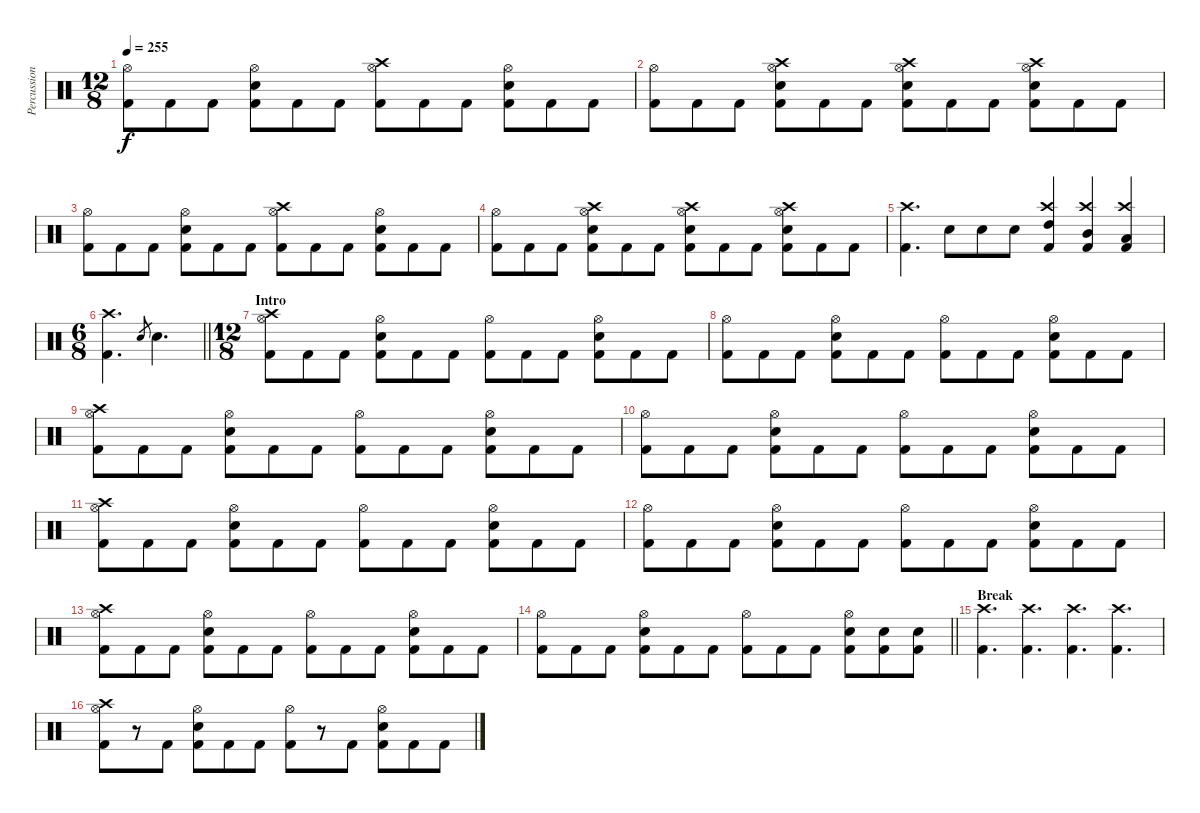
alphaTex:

\track ("Percussion" "Percussion") {instrument percussion}
\staff {score}
\articulation defaults
\ts (12 8)
\tempo 255
\clef neutral
\ks c
("Hi-Hat (open)" "Kick (hit) 2").8{dy f} "Kick (hit) 2".8 "Kick (hit) 2".8 ("Hi-Hat (open)" "Snare (hit) 2" "Kick (hit) 2").8 "Kick (hit) 2".8 "Kick (hit) 2".8 ("Crash high (hit)" "Hi-Hat (open)" "Kick (hit) 2").8 "Kick (hit) 2".8 "Kick (hit) 2".8 ("Hi-Hat (open)" "Snare (hit) 2" "Kick (hit) 2").8 "Kick (hit) 2".8 "Kick (hit) 2".8 |
("Hi-Hat (open)" "Kick (hit) 2").8 "Kick (hit) 2".8 "Kick (hit) 2".8 ("Crash high (hit)" "Hi-Hat (open)" "Snare (hit) 2" "Kick (hit) 2").8 "Kick (hit) 2".8 "Kick (hit) 2".8 ("Crash high (hit)" "Hi-Hat (open)" "Snare (hit) 2" "Kick (hit) 2").8 "Kick (hit) 2".8 "Kick (hit) 2".8 ("Crash high (hit)" "Hi-Hat (open)" "Snare (hit) 2" "Kick (hit) 2").8 "Kick (hit) 2".8 "Kick (hit) 2".8 |
("Hi-Hat (open)" "Kick (hit) 2").8 "Kick (hit) 2".8 "Kick (hit) 2".8 ("Hi-Hat (open)" "Snare (hit) 2" "Kick (hit) 2").8 "Kick (hit) 2".8 "Kick (hit) 2".8 ("Crash high (hit)" "Hi-Hat (open)" "Kick (hit) 2").8 "Kick (hit) 2".8 "Kick (hit) 2".8 ("Hi-Hat (open)" "Snare (hit) 2" "Kick (hit) 2").8 "Kick (hit) 2".8 "Kick (hit) 2".8 |
("Hi-Hat (open)" "Kick (hit) 2").8 "Kick (hit) 2".8 "Kick (hit) 2".8 ("Crash high (hit)" "Hi-Hat (open)" "Snare (hit) 2" "Kick (hit) 2").8 "Kick (hit) 2".8 "Kick (hit) 2".8 ("Crash high (hit)" "Hi-Hat (open)" "Snare (hit) 2" "Kick (hit) 2").8 "Kick (hit) 2".8 "Kick (hit) 2".8 ("Crash high (hit)" "Hi-Hat (open)" "Snare (hit) 2" "Kick (hit) 2").8 "Kick (hit) 2".8 "Kick (hit) 2".8 |
("Crash high (hit)" "Kick (hit) 2").4{d} "Snare (hit) 2".8 "Snare (hit) 2".8 "Snare (hit) 2".8 ("Crash high (hit)" "High Tom (hit)" "Kick (hit) 2").4 ("Crash high (hit)" "Mid Tom (hit)" "Kick (hit) 2").4 ("Crash high (hit)" "Low Tom (hit)" "Kick (hit) 2").4 |
\ts (6 8)
\barLineRight lightlight
("Crash high (hit)" "Kick (hit) 2").4{d} "Snare (hit) 2".8{gr} "Snare (hit) 2".4{d} |
\ts (12 8)
\section ("" "Intro")
("Crash high (hit)" "Hi-Hat (open)" "Kick (hit) 2").8 "Kick (hit) 2".8 "Kick (hit) 2".8 ("Hi-Hat (open)" "Snare (hit) 2" "Kick (hit) 2").8 "Kick (hit) 2".8 "Kick (hit) 2".8 ("Hi-Hat (open)" "Kick (hit) 2").8 "Kick (hit) 2".8 "Kick (hit) 2".8 ("Hi-Hat (open)" "Snare (hit) 2" "Kick (hit) 2").8 "Kick (hit) 2".8 "Kick (hit) 2".8 |
("Hi-Hat (open)" "Kick (hit) 2").8 "Kick (hit) 2".8 "Kick (hit) 2".8 ("Hi-Hat (open)" "Snare (hit) 2" "Kick (hit) 2").8 "Kick (hit) 2".8 "Kick (hit) 2".8 ("Hi-Hat (open)" "Kick (hit) 2").8 "Kick (hit) 2".8 "Kick (hit) 2".8 ("Hi-Hat (open)" "Snare (hit) 2" "Kick (hit) 2").8 "Kick (hit) 2".8 "Kick (hit) 2".8 |
("Crash high (hit)" "Hi-Hat (open)" "Kick (hit) 2").8 "Kick (hit) 2".8 "Kick (hit) 2".8 ("Hi-Hat (open)" "Snare (hit) 2" "Kick (hit) 2").8 "Kick (hit) 2".8 "Kick (hit) 2".8 ("Hi-Hat (open)" "Kick (hit) 2").8 "Kick (hit) 2".8 "Kick (hit) 2".8 ("Hi-Hat (open)" "Snare (hit) 2" "Kick (hit) 2").8 "Kick (hit) 2".8 "Kick (hit) 2".8 |
("Hi-Hat (open)" "Kick (hit) 2").8 "Kick (hit) 2".8 "Kick (hit) 2".8 ("Hi-Hat (open)" "Snare (hit) 2" "Kick (hit) 2").8 "Kick (hit) 2".8 "Kick (hit) 2".8 ("Hi-Hat (open)" "Kick (hit) 2").8 "Kick (hit) 2".8 "Kick (hit) 2".8 ("Hi-Hat (open)" "Snare (hit) 2" "Kick (hit) 2").8 "Kick (hit) 2".8 "Kick (hit) 2".8 |
("Crash high (hit)" "Hi-Hat (open)" "Kick (hit) 2").8 "Kick (hit) 2".8 "Kick (hit) 2".8 ("Hi-Hat (open)" "Snare (hit) 2" "Kick (hit) 2").8 "Kick (hit) 2".8 "Kick (hit) 2".8 ("Hi-Hat (open)" "Kick (hit) 2").8 "Kick (hit) 2".8 "Kick (hit) 2".8 ("Hi-Hat (open)" "Snare (hit) 2" "Kick (hit) 2").8 "Kick (hit) 2".8 "Kick (hit) 2".8 |
("Hi-Hat (open)" "Kick (hit) 2").8 "Kick (hit) 2".8 "Kick (hit) 2".8 ("Hi-Hat (open)" "Snare (hit) 2" "Kick (hit) 2").8 "Kick (hit) 2".8 "Kick (hit) 2".8 ("Hi-Hat (open)" "Kick (hit) 2").8 "Kick (hit) 2".8 "Kick (hit) 2".8 ("Hi-Hat (open)" "Snare (hit) 2" "Kick (hit) 2").8 "Kick (hit) 2".8 "Kick (hit) 2".8 |
("Crash high (hit)" "Hi-Hat (open)" "Kick (hit) 2").8 "Kick (hit) 2".8 "Kick (hit) 2".8 ("Hi-Hat (open)" "Snare (hit) 2" "Kick (hit) 2").8 "Kick (hit) 2".8 "Kick (hit) 2".8 ("Hi-Hat (open)" "Kick (hit) 2").8 "Kick (hit) 2".8 "Kick (hit) 2".8 ("Hi-Hat (open)" "Snare (hit) 2" "Kick (hit) 2").8 "Kick (hit) 2".8 "Kick (hit) 2".8 |
\barLineRight lightlight
("Hi-Hat (open)" "Kick (hit) 2").8 "Kick (hit) 2".8 "Kick (hit) 2".8 ("Hi-Hat (open)" "Snare (hit) 2" "Kick (hit) 2").8 "Kick (hit) 2".8 "Kick (hit) 2".8 ("Hi-Hat (open)" "Kick (hit) 2").8 "Kick (hit) 2".8 "Kick (hit) 2".8 ("Hi-Hat (open)" "Snare (hit) 2" "Kick (hit) 2").8 ("Snare (hit) 2" "Kick (hit) 2").8 ("Snare (hit) 2" "Kick (hit) 2").8 |
\section ("" "Break")
("Crash high (hit)" "Kick (hit) 2").4{d} ("Crash high (hit)" "Kick (hit) 2").4{d} ("Crash high (hit)" "Kick (hit) 2").4{d} ("Crash high (hit)" "Kick (hit) 2").4{d} |
("Crash high (hit)" "Hi-Hat (open)" "Kick (hit) 2").8 r.8 "Kick (hit) 2".8 ("Hi-Hat (open)" "Snare (hit) 2" "Kick (hit) 2").8 "Kick (hit) 2".8 "Kick (hit) 2".8 ("Hi-Hat (open)" "Kick (hit) 2").8 r.8 "Kick (hit) 2".8 ("Hi-Hat (open)" "Snare (hit) 2" "Kick (hit) 2").8 "Kick (hit) 2".8 "Kick (hit) 2".8
